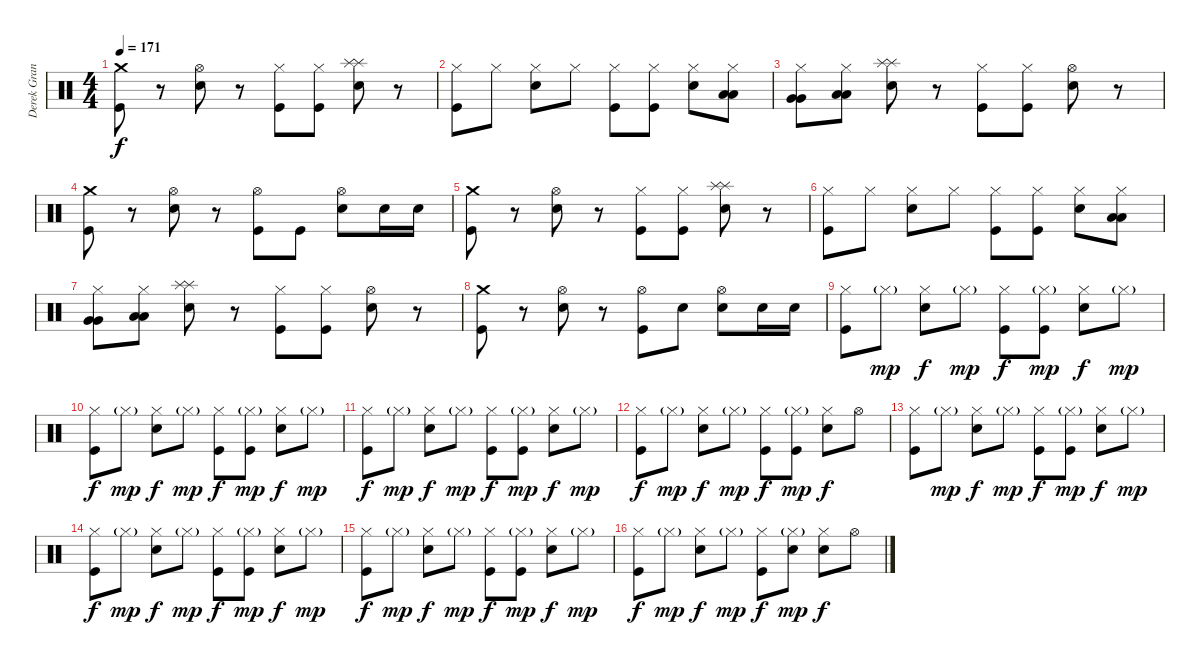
\track ("Derek Grant" "Derek Gran") {instrument percussion}
\staff {score}
\articulation defaults
\ts (4 4)
\tempo 171
\clef neutral
\ks c
("Crash medium (hit)" "Kick (hit)").8{dy f} r.8 ("Hi-Hat (open)" "Electric Snare (hit)").8 r.8 ("Hi-Hat (closed)" "Kick (hit)").8 ("Hi-Hat (closed)" "Kick (hit)").8 ("Splash (hit)" "Splash (hit)" "Electric Snare (hit)").8 r.8 |
("Hi-Hat (closed)" "Kick (hit)").8 "Hi-Hat (closed)".8 ("Hi-Hat (closed)" "Electric Snare (hit)").8 "Hi-Hat (closed)".8 ("Hi-Hat (closed)" "Kick (hit)").8 ("Hi-Hat (closed)" "Kick (hit)").8 ("Hi-Hat (closed)" "Electric Snare (hit)").8 ("Hi-Hat (closed)" "Low Tom (hit)" "Low Tom (hit)").8 |
("Hi-Hat (closed)" "Very Low Tom (hit)" "Very Low Tom (hit)").8 ("Hi-Hat (closed)" "Low Floor Tom (hit)" "Low Floor Tom (hit)").8 ("Splash (hit)" "Splash (hit)" "Electric Snare (hit)").8 r.8 ("Hi-Hat (closed)" "Kick (hit)").8 ("Hi-Hat (closed)" "Kick (hit)").8 ("Hi-Hat (open)" "Electric Snare (hit)").8 r.8 |
("Crash medium (hit)" "Kick (hit)").8 r.8 ("Hi-Hat (open)" "Electric Snare (hit)").8 r.8 ("Hi-Hat (open)" "Kick (hit)").8 "Kick (hit)".8 ("Hi-Hat (open)" "Electric Snare (hit)").8 "Electric Snare (hit)".16 "Electric Snare (hit)".16 |
("Crash medium (hit)" "Kick (hit)").8 r.8 ("Hi-Hat (open)" "Electric Snare (hit)").8 r.8 ("Hi-Hat (closed)" "Kick (hit)").8 ("Hi-Hat (closed)" "Kick (hit)").8 ("Splash (hit)" "Splash (hit)" "Electric Snare (hit)").8 r.8 |
("Hi-Hat (closed)" "Kick (hit)").8 "Hi-Hat (closed)".8 ("Hi-Hat (closed)" "Electric Snare (hit)").8 "Hi-Hat (closed)".8 ("Hi-Hat (closed)" "Kick (hit)").8 ("Hi-Hat (closed)" "Kick (hit)").8 ("Hi-Hat (closed)" "Electric Snare (hit)").8 ("Hi-Hat (closed)" "Low Tom (hit)" "Low Tom (hit)").8 |
("Hi-Hat (closed)" "Very Low Tom (hit)" "Very Low Tom (hit)").8 ("Hi-Hat (closed)" "Low Floor Tom (hit)" "Low Floor Tom (hit)").8 ("Splash (hit)" "Splash (hit)" "Electric Snare (hit)").8 r.8 ("Hi-Hat (closed)" "Kick (hit)").8 ("Hi-Hat (closed)" "Kick (hit)").8 ("Hi-Hat (open)" "Electric Snare (hit)").8 r.8 |
("Crash medium (hit)" "Kick (hit)").8 r.8 ("Hi-Hat (open)" "Electric Snare (hit)").8 r.8 ("Hi-Hat (open)" "Kick (hit)").8 "Electric Snare (hit)".8 ("Hi-Hat (open)" "Electric Snare (hit)").8 "Electric Snare (hit)".16 "Electric Snare (hit)".16 |
("Hi-Hat (closed)" "Kick (hit)").8 "Hi-Hat (closed)"{g}.8{dy mp} ("Hi-Hat (closed)" "Electric Snare (hit)").8{dy f} "Hi-Hat (closed)"{g}.8{dy mp} ("Hi-Hat (closed)" "Kick (hit)").8{dy f} ("Hi-Hat (closed)"{g} "Kick (hit)").8{dy mp} ("Hi-Hat (closed)" "Electric Snare (hit)").8{dy f} "Hi-Hat (closed)"{g}.8{dy mp} |
("Hi-Hat (closed)" "Kick (hit)").8{dy f} "Hi-Hat (closed)"{g}.8{dy mp} ("Hi-Hat (closed)" "Electric Snare (hit)").8{dy f} "Hi-Hat (closed)"{g}.8{dy mp} ("Hi-Hat (closed)" "Kick (hit)").8{dy f} ("Hi-Hat (closed)"{g} "Kick (hit)").8{dy mp} ("Hi-Hat (closed)" "Electric Snare (hit)").8{dy f} "Hi-Hat (closed)"{g}.8{dy mp} |
("Hi-Hat (closed)" "Kick (hit)").8{dy f} "Hi-Hat (closed)"{g}.8{dy mp} ("Hi-Hat (closed)" "Electric Snare (hit)").8{dy f} "Hi-Hat (closed)"{g}.8{dy mp} ("Hi-Hat (closed)" "Kick (hit)").8{dy f} ("Hi-Hat (closed)"{g} "Kick (hit)").8{dy mp} ("Hi-Hat (closed)" "Electric Snare (hit)").8{dy f} "Hi-Hat (closed)"{g}.8{dy mp} |
("Hi-Hat (closed)" "Kick (hit)").8{dy f} "Hi-Hat (closed)"{g}.8{dy mp} ("Hi-Hat (closed)" "Electric Snare (hit)").8{dy f} "Hi-Hat (closed)"{g}.8{dy mp} ("Hi-Hat (closed)" "Kick (hit)").8{dy f} ("Hi-Hat (closed)"{g} "Kick (hit)").8{dy mp} ("Hi-Hat (closed)" "Electric Snare (hit)").8{dy f} "Hi-Hat (open)".8 |
("Hi-Hat (closed)" "Kick (hit)").8 "Hi-Hat (closed)"{g}.8{dy mp} ("Hi-Hat (closed)" "Electric Snare (hit)").8{dy f} "Hi-Hat (closed)"{g}.8{dy mp} ("Hi-Hat (closed)" "Kick (hit)").8{dy f} ("Hi-Hat (closed)"{g} "Kick (hit)").8{dy mp} ("Hi-Hat (closed)" "Electric Snare (hit)").8{dy f} "Hi-Hat (closed)"{g}.8{dy mp} |
("Hi-Hat (closed)" "Kick (hit)").8{dy f} "Hi-Hat (closed)"{g}.8{dy mp} ("Hi-Hat (closed)" "Electric Snare (hit)").8{dy f} "Hi-Hat (closed)"{g}.8{dy mp} ("Hi-Hat (closed)" "Kick (hit)").8{dy f} ("Hi-Hat (closed)"{g} "Kick (hit)").8{dy mp} ("Hi-Hat (closed)" "Electric Snare (hit)").8{dy f} "Hi-Hat (closed)"{g}.8{dy mp} |
("Hi-Hat (closed)" "Kick (hit)").8{dy f} "Hi-Hat (closed)"{g}.8{dy mp} ("Hi-Hat (closed)" "Electric Snare (hit)").8{dy f} "Hi-Hat (closed)"{g}.8{dy mp} ("Hi-Hat (closed)" "Kick (hit)").8{dy f} ("Hi-Hat (closed)"{g} "Kick (hit)").8{dy mp} ("Hi-Hat (closed)" "Electric Snare (hit)").8{dy f} "Hi-Hat (closed)"{g}.8{dy mp} |
("Hi-Hat (closed)" "Kick (hit)").8{dy f} "Hi-Hat (closed)"{g}.8{dy mp} ("Hi-Hat (closed)" "Electric Snare (hit)").8{dy f} "Hi-Hat (closed)"{g}.8{dy mp} ("Hi-Hat (closed)" "Kick (hit)").8{dy f} ("Hi-Hat (closed)"{g} "Electric Snare (hit)").8{dy mp} ("Hi-Hat (closed)" "Electric Snare (hit)").8{dy f} "Hi-Hat (open)".8
